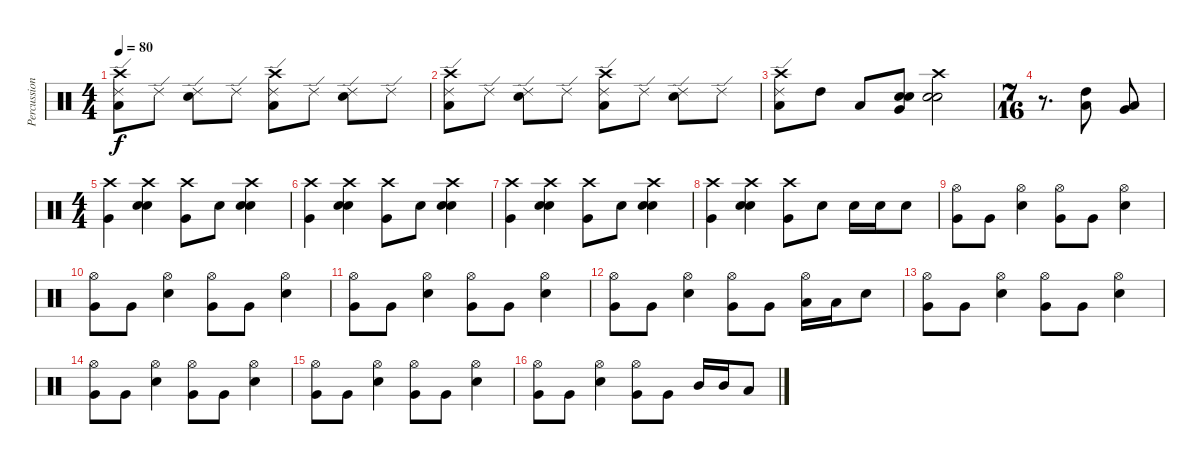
\track ("Percussion" "Percussion") {instrument percussion}
\staff {score}
\articulation defaults
\ts (4 4)
\tempo 80
\clef neutral
\ks c
("Crash high (hit)" "Ride (edge) 2" "Low Floor Tom (hit)").8{dy f} "Ride (edge) 2".8 ("Ride (edge) 2" "Snare (hit) 2").8 "Ride (edge) 2".8 ("Crash high (hit)" "Ride (edge) 2" "Low Floor Tom (hit)").8 "Ride (edge) 2".8 ("Ride (edge) 2" "Snare (hit) 2").8 "Ride (edge) 2".8 |
("Crash high (hit)" "Ride (edge) 2" "Low Floor Tom (hit)").8 "Ride (edge) 2".8 ("Ride (edge) 2" "Snare (hit) 2").8 "Ride (edge) 2".8 ("Crash high (hit)" "Ride (edge) 2" "Low Floor Tom (hit)").8 "Ride (edge) 2".8 ("Ride (edge) 2" "Snare (hit) 2").8 "Ride (edge) 2".8 |
("Crash high (hit)" "Ride (edge) 2" "Low Floor Tom (hit)").8 "High Tom (hit)".8 "Low Tom (hit)".8 ("Snare (hit) 2" "Snare (hit) 2" "Very Low Tom (hit)").8 ("Crash high (hit)" "Snare (hit) 2" "Snare (hit) 2").2 |
\ts (7 16)
r.8{d} ("Low Tom (hit)" "High Tom (hit)").8 ("Low Floor Tom (hit)" "Very Low Tom (hit)").8 |
\ts (4 4)
("Crash high (hit)" "Very Low Tom (hit)").4 ("Crash high (hit)" "Snare (hit) 2" "Snare (hit) 2").4 ("Crash high (hit)" "Very Low Tom (hit)").8 "Snare (hit) 2".8 ("Crash high (hit)" "Snare (hit) 2" "Snare (hit) 2").4 |
("Crash high (hit)" "Very Low Tom (hit)").4 ("Crash high (hit)" "Snare (hit) 2" "Snare (hit) 2").4 ("Crash high (hit)" "Very Low Tom (hit)").8 "Snare (hit) 2".8 ("Crash high (hit)" "Snare (hit) 2" "Snare (hit) 2").4 |
("Crash high (hit)" "Very Low Tom (hit)").4 ("Crash high (hit)" "Snare (hit) 2" "Snare (hit) 2").4 ("Crash high (hit)" "Very Low Tom (hit)").8 "Snare (hit) 2".8 ("Crash high (hit)" "Snare (hit) 2" "Snare (hit) 2").4 |
("Crash high (hit)" "Very Low Tom (hit)").4 ("Crash high (hit)" "Snare (hit) 2" "Snare (hit) 2").4 ("Crash high (hit)" "Very Low Tom (hit)").8 "Snare (hit) 2".8 "Snare (hit) 2".16 "Snare (hit) 2".16 "Snare (hit) 2".8 |
("Hi-Hat (open)" "Very Low Tom (hit)").8 "Very Low Tom (hit)".8 ("Hi-Hat (open)" "Snare (hit) 2").4 ("Hi-Hat (open)" "Very Low Tom (hit)").8 "Very Low Tom (hit)".8 ("Hi-Hat (open)" "Snare (hit) 2").4 |
("Hi-Hat (open)" "Very Low Tom (hit)").8 "Very Low Tom (hit)".8 ("Hi-Hat (open)" "Snare (hit) 2").4 ("Hi-Hat (open)" "Very Low Tom (hit)").8 "Very Low Tom (hit)".8 ("Hi-Hat (open)" "Snare (hit) 2").4 |
("Hi-Hat (open)" "Very Low Tom (hit)").8 "Very Low Tom (hit)".8 ("Hi-Hat (open)" "Snare (hit) 2").4 ("Hi-Hat (open)" "Very Low Tom (hit)").8 "Very Low Tom (hit)".8 ("Hi-Hat (open)" "Snare (hit) 2").4 |
("Hi-Hat (open)" "Very Low Tom (hit)").8 "Very Low Tom (hit)".8 ("Hi-Hat (open)" "Snare (hit) 2").4 ("Hi-Hat (open)" "Very Low Tom (hit)").8 "Very Low Tom (hit)".8 ("Hi-Hat (open)" "Low Tom (hit)").16 "Low Tom (hit)".16 "Snare (hit) 2".8 |
("Hi-Hat (open)" "Very Low Tom (hit)").8 "Very Low Tom (hit)".8 ("Hi-Hat (open)" "Snare (hit) 2").4 ("Hi-Hat (open)" "Very Low Tom (hit)").8 "Very Low Tom (hit)".8 ("Hi-Hat (open)" "Snare (hit) 2").4 |
("Hi-Hat (open)" "Very Low Tom (hit)").8 "Very Low Tom (hit)".8 ("Hi-Hat (open)" "Snare (hit) 2").4 ("Hi-Hat (open)" "Very Low Tom (hit)").8 "Very Low Tom (hit)".8 ("Hi-Hat (open)" "Snare (hit) 2").4 |
("Hi-Hat (open)" "Very Low Tom (hit)").8 "Very Low Tom (hit)".8 ("Hi-Hat (open)" "Snare (hit) 2").4 ("Hi-Hat (open)" "Very Low Tom (hit)").8 "Very Low Tom (hit)".8 ("Hi-Hat (open)" "Snare (hit) 2").4 |
("Hi-Hat (open)" "Very Low Tom (hit)").8 "Very Low Tom (hit)".8 ("Hi-Hat (open)" "Snare (hit) 2").4 ("Hi-Hat (open)" "Very Low Tom (hit)").8 "Very Low Tom (hit)".8 "Mid Tom (hit)".16 "Mid Tom (hit)".16 "Low Tom (hit)".8
